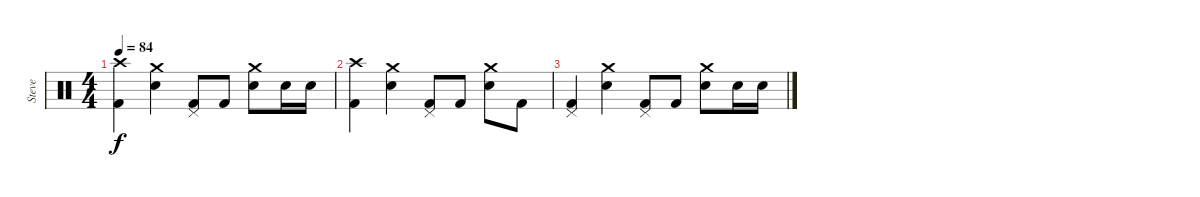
\track ("Steve" "Steve") {instrument percussion}
\staff {score}
\articulation defaults
\ts (4 4)
\tempo 84
\clef neutral
\ks c
("Crash high (hit)" "Kick (hit) 2").4{dy f} ("Crash medium (hit)" "Snare (hit) 2").4 ("Pedal Hi-Hat (hit)" "Kick (hit) 2").8 "Kick (hit) 2".8 ("Crash medium (hit)" "Snare (hit) 2").8 "Snare (hit) 2".16 "Snare (hit) 2".16 |
("Crash high (hit)" "Kick (hit) 2").4 ("Crash medium (hit)" "Snare (hit) 2").4 ("Pedal Hi-Hat (hit)" "Kick (hit) 2").8 "Kick (hit) 2".8 ("Crash medium (hit)" "Snare (hit) 2").8 "Kick (hit) 2".8 |
("Pedal Hi-Hat (hit)" "Kick (hit) 2").4 ("Crash medium (hit)" "Snare (hit) 2").4 ("Pedal Hi-Hat (hit)" "Kick (hit) 2").8 "Kick (hit) 2".8 ("Crash medium (hit)" "Snare (hit) 2").8 "Snare (hit) 2".16 "Snare (hit) 2".16
